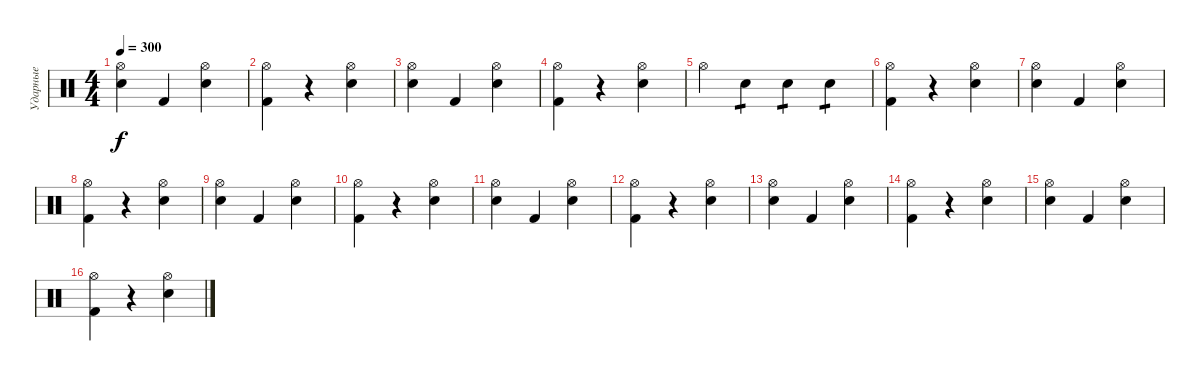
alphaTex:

\track ("Ударные" "Ударные") {instrument percussion}
\staff
\articulation defaults
\ts (4 4)
\tempo 300
\clef neutral
\ks c
("Snare (hit)" "Hi-Hat (open)").4{dy f} "Kick (hit) 2".4 ("Electric Snare (hit)" "Hi-Hat (open)").4 |
("Hi-Hat (open)" "Kick (hit) 2").4 r.4 ("Electric Snare (hit)" "Hi-Hat (open)").4 |
("Snare (hit)" "Hi-Hat (open)").4 "Kick (hit) 2".4 ("Electric Snare (hit)" "Hi-Hat (open)").4 |
("Hi-Hat (open)" "Kick (hit) 2").4 r.4 ("Electric Snare (hit)" "Hi-Hat (open)").4 |
"Hi-Hat (open)".4 "Electric Snare (hit)".4{tp 1} "Electric Snare (hit)".4{tp 1} "Electric Snare (hit)".4{tp 1} |
("Hi-Hat (open)" "Kick (hit) 2").4 r.4 ("Electric Snare (hit)" "Hi-Hat (open)").4 |
("Snare (hit)" "Hi-Hat (open)").4 "Kick (hit) 2".4 ("Electric Snare (hit)" "Hi-Hat (open)").4 |
("Hi-Hat (open)" "Kick (hit) 2").4 r.4 ("Electric Snare (hit)" "Hi-Hat (open)").4 |
("Snare (hit)" "Hi-Hat (open)").4 "Kick (hit) 2".4 ("Electric Snare (hit)" "Hi-Hat (open)").4 |
("Hi-Hat (open)" "Kick (hit) 2").4 r.4 ("Electric Snare (hit)" "Hi-Hat (open)").4 |
("Snare (hit)" "Hi-Hat (open)").4 "Kick (hit) 2".4 ("Electric Snare (hit)" "Hi-Hat (open)").4 |
("Hi-Hat (open)" "Kick (hit) 2").4 r.4 ("Electric Snare (hit)" "Hi-Hat (open)").4 |
("Snare (hit)" "Hi-Hat (open)").4 "Kick (hit) 2".4 ("Electric Snare (hit)" "Hi-Hat (open)").4 |
("Hi-Hat (open)" "Kick (hit) 2").4 r.4 ("Electric Snare (hit)" "Hi-Hat (open)").4 |
("Snare (hit)" "Hi-Hat (open)").4 "Kick (hit) 2".4 ("Electric Snare (hit)" "Hi-Hat (open)").4 |
("Hi-Hat (open)" "Kick (hit) 2").4 r.4 ("Electric Snare (hit)" "Hi-Hat (open)").4
